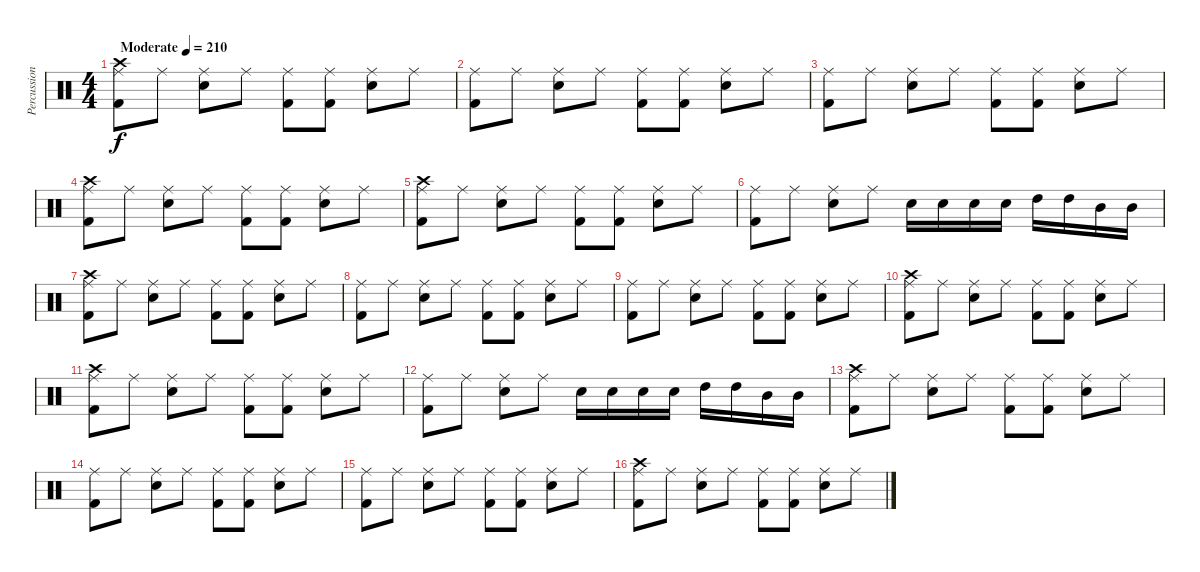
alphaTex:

\track ("Percussion" "Percussion") {instrument percussion}
\staff {score}
\articulation defaults
\ts (4 4)
\tempo (210 "Moderate")
\clef neutral
\ks c
("Ride (middle)" "Crash high (hit)" "Kick (hit) 2").8{dy f} "Ride (middle)".8 ("Ride (middle)" "Snare (hit) 2").8 "Ride (middle)".8 ("Ride (middle)" "Kick (hit) 2").8 ("Ride (middle)" "Kick (hit) 2").8 ("Ride (middle)" "Snare (hit) 2").8 "Ride (middle)".8 |
("Ride (middle)" "Kick (hit) 2").8 "Ride (middle)".8 ("Ride (middle)" "Snare (hit) 2").8 "Ride (middle)".8 ("Ride (middle)" "Kick (hit) 2").8 ("Ride (middle)" "Kick (hit) 2").8 ("Ride (middle)" "Snare (hit) 2").8 "Ride (middle)".8 |
("Ride (middle)" "Kick (hit) 2").8 "Ride (middle)".8 ("Ride (middle)" "Snare (hit) 2").8 "Ride (middle)".8 ("Ride (middle)" "Kick (hit) 2").8 ("Ride (middle)" "Kick (hit) 2").8 ("Ride (middle)" "Snare (hit) 2").8 "Ride (middle)".8 |
("Ride (middle)" "Crash high (hit)" "Kick (hit) 2").8 "Ride (middle)".8 ("Ride (middle)" "Snare (hit) 2").8 "Ride (middle)".8 ("Ride (middle)" "Kick (hit) 2").8 ("Ride (middle)" "Kick (hit) 2").8 ("Ride (middle)" "Snare (hit) 2").8 "Ride (middle)".8 |
("Ride (middle)" "Crash high (hit)" "Kick (hit) 2").8 "Ride (middle)".8 ("Ride (middle)" "Snare (hit) 2").8 "Ride (middle)".8 ("Ride (middle)" "Kick (hit) 2").8 ("Ride (middle)" "Kick (hit) 2").8 ("Ride (middle)" "Snare (hit) 2").8 "Ride (middle)".8 |
("Ride (middle)" "Kick (hit) 2").8 "Ride (middle)".8 ("Ride (middle)" "Snare (hit) 2").8 "Ride (middle)".8 "Snare (hit) 2".16 "Snare (hit) 2".16 "Snare (hit) 2".16 "Snare (hit) 2".16 "High Tom (hit)".16 "High Tom (hit)".16 "Mid Tom (hit)".16 "Mid Tom (hit)".16 |
("Ride (middle)" "Crash high (hit)" "Kick (hit) 2").8 "Ride (middle)".8 ("Ride (middle)" "Snare (hit) 2").8 "Ride (middle)".8 ("Ride (middle)" "Kick (hit) 2").8 ("Ride (middle)" "Kick (hit) 2").8 ("Ride (middle)" "Snare (hit) 2").8 "Ride (middle)".8 |
("Ride (middle)" "Kick (hit) 2").8 "Ride (middle)".8 ("Ride (middle)" "Snare (hit) 2").8 "Ride (middle)".8 ("Ride (middle)" "Kick (hit) 2").8 ("Ride (middle)" "Kick (hit) 2").8 ("Ride (middle)" "Snare (hit) 2").8 "Ride (middle)".8 |
("Ride (middle)" "Kick (hit) 2").8 "Ride (middle)".8 ("Ride (middle)" "Snare (hit) 2").8 "Ride (middle)".8 ("Ride (middle)" "Kick (hit) 2").8 ("Ride (middle)" "Kick (hit) 2").8 ("Ride (middle)" "Snare (hit) 2").8 "Ride (middle)".8 |
("Ride (middle)" "Crash high (hit)" "Kick (hit) 2").8 "Ride (middle)".8 ("Ride (middle)" "Snare (hit) 2").8 "Ride (middle)".8 ("Ride (middle)" "Kick (hit) 2").8 ("Ride (middle)" "Kick (hit) 2").8 ("Ride (middle)" "Snare (hit) 2").8 "Ride (middle)".8 |
("Ride (middle)" "Crash high (hit)" "Kick (hit) 2").8 "Ride (middle)".8 ("Ride (middle)" "Snare (hit) 2").8 "Ride (middle)".8 ("Ride (middle)" "Kick (hit) 2").8 ("Ride (middle)" "Kick (hit) 2").8 ("Ride (middle)" "Snare (hit) 2").8 "Ride (middle)".8 |
("Ride (middle)" "Kick (hit) 2").8 "Ride (middle)".8 ("Ride (middle)" "Snare (hit) 2").8 "Ride (middle)".8 "Snare (hit) 2".16 "Snare (hit) 2".16 "Snare (hit) 2".16 "Snare (hit) 2".16 "High Tom (hit)".16 "High Tom (hit)".16 "Mid Tom (hit)".16 "Mid Tom (hit)".16 |
("Ride (middle)" "Crash high (hit)" "Kick (hit) 2").8 "Ride (middle)".8 ("Ride (middle)" "Snare (hit) 2").8 "Ride (middle)".8 ("Ride (middle)" "Kick (hit) 2").8 ("Ride (middle)" "Kick (hit) 2").8 ("Ride (middle)" "Snare (hit) 2").8 "Ride (middle)".8 |
("Ride (middle)" "Kick (hit) 2").8 "Ride (middle)".8 ("Ride (middle)" "Snare (hit) 2").8 "Ride (middle)".8 ("Ride (middle)" "Kick (hit) 2").8 ("Ride (middle)" "Kick (hit) 2").8 ("Ride (middle)" "Snare (hit) 2").8 "Ride (middle)".8 |
("Ride (middle)" "Kick (hit) 2").8 "Ride (middle)".8 ("Ride (middle)" "Snare (hit) 2").8 "Ride (middle)".8 ("Ride (middle)" "Kick (hit) 2").8 ("Ride (middle)" "Kick (hit) 2").8 ("Ride (middle)" "Snare (hit) 2").8 "Ride (middle)".8 |
("Ride (middle)" "Crash high (hit)" "Kick (hit) 2").8 "Ride (middle)".8 ("Ride (middle)" "Snare (hit) 2").8 "Ride (middle)".8 ("Ride (middle)" "Kick (hit) 2").8 ("Ride (middle)" "Kick (hit) 2").8 ("Ride (middle)" "Snare (hit) 2").8 "Ride (middle)".8
